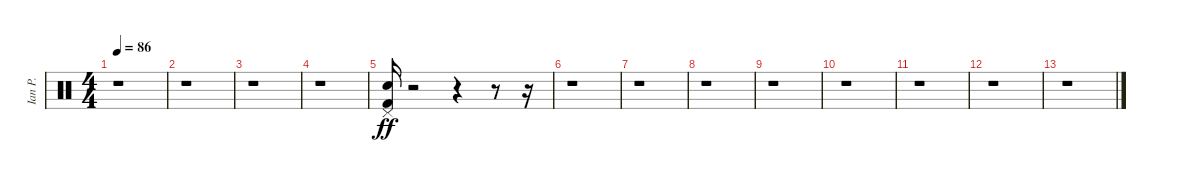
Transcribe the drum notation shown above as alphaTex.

\track ("Ian P." "Ian P.") {instrument percussion}
\staff {score}
\articulation defaults
\ts (4 4)
\tempo 86
\clef neutral
\ks c
r.1{dy fff} |
r.1 |
r.1 |
r.1 |
("Snare (hit) 2" "Kick (hit) 2" "Pedal Hi-Hat (hit)").16{dy ff} r.2 r.4 r.8 r.16 |
r.1 |
r.1 |
r.1 |
r.1 |
r.1 |
r.1 |
r.1 |
r.1
